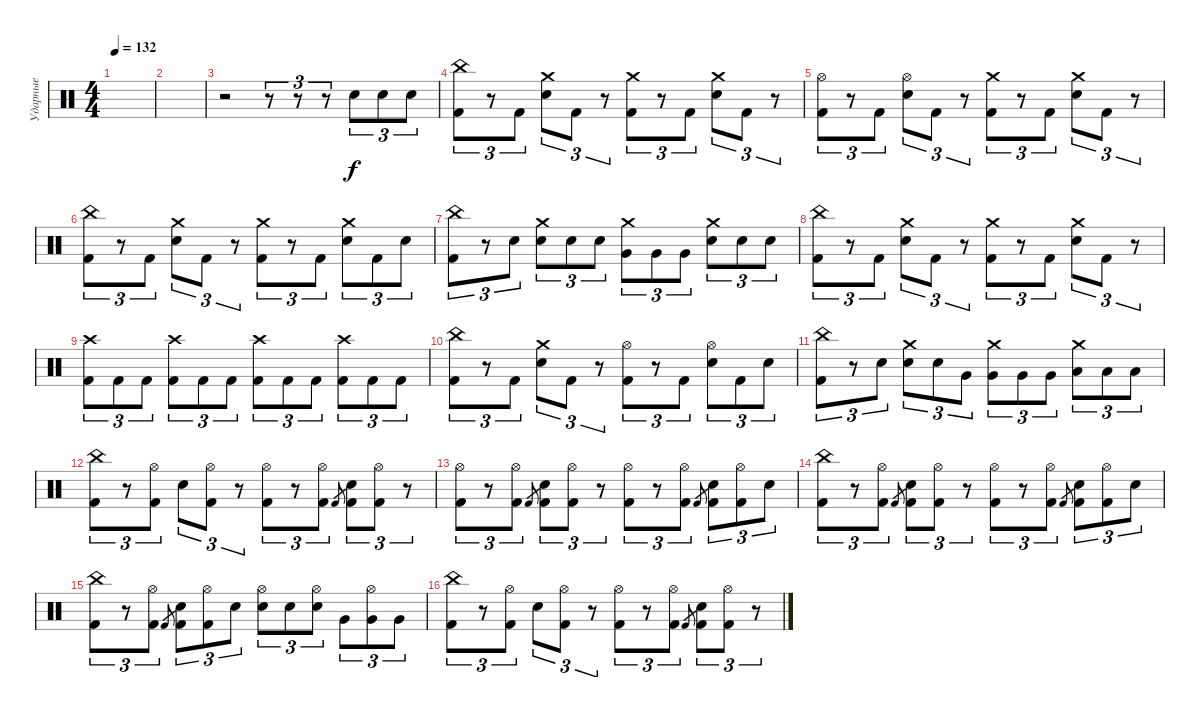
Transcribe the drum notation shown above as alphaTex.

\track ("Ударные" "Ударные") {instrument percussion}
\staff {score}
\articulation defaults
\ts (4 4)
\tempo 132
\clef neutral
\ks c
|
|
r.2 r.8{tu (3 2)} r.8{tu (3 2)} r.8{tu (3 2)} "Snare (hit) 2".8{tu (3 2)} "Snare (hit) 2".8{tu (3 2)} "Snare (hit) 2".8{tu (3 2)} |
("China (hit)" "Kick (hit) 2").8{tu (3 2)} r.8{tu (3 2)} "Kick (hit) 2".8{tu (3 2)} ("Crash medium (hit)" "Snare (hit) 2").8{tu (3 2)} "Kick (hit) 2".8{tu (3 2)} r.8{tu (3 2)} ("Crash medium (hit)" "Kick (hit) 2").8{tu (3 2)} r.8{tu (3 2)} "Kick (hit) 2".8{tu (3 2)} ("Crash medium (hit)" "Snare (hit) 2").8{tu (3 2)} "Kick (hit) 2".8{tu (3 2)} r.8{tu (3 2)} |
("Hi-Hat (open)" "Kick (hit) 2").8{tu (3 2)} r.8{tu (3 2)} "Kick (hit) 2".8{tu (3 2)} ("Hi-Hat (open)" "Snare (hit) 2").8{tu (3 2)} "Kick (hit) 2".8{tu (3 2)} r.8{tu (3 2)} ("Crash medium (hit)" "Kick (hit) 2").8{tu (3 2)} r.8{tu (3 2)} "Kick (hit) 2".8{tu (3 2)} ("Crash medium (hit)" "Snare (hit) 2").8{tu (3 2)} "Kick (hit) 2".8{tu (3 2)} r.8{tu (3 2)} |
("China (hit)" "Kick (hit) 2").8{tu (3 2)} r.8{tu (3 2)} "Kick (hit) 2".8{tu (3 2)} ("Crash medium (hit)" "Snare (hit) 2").8{tu (3 2)} "Kick (hit) 2".8{tu (3 2)} r.8{tu (3 2)} ("Crash medium (hit)" "Kick (hit) 2").8{tu (3 2)} r.8{tu (3 2)} "Kick (hit) 2".8{tu (3 2)} ("Crash medium (hit)" "Snare (hit) 2").8{tu (3 2)} "Kick (hit) 2".8{tu (3 2)} "Snare (hit) 2".8{tu (3 2)} |
("China (hit)" "Kick (hit) 2").8{tu (3 2)} r.8{tu (3 2)} "Snare (hit) 2".8{tu (3 2)} ("Crash medium (hit)" "Snare (hit) 2").8{tu (3 2)} "Snare (hit) 2".8{tu (3 2)} "Snare (hit) 2".8{tu (3 2)} ("Crash medium (hit)" "Very Low Tom (hit)").8{tu (3 2)} "Very Low Tom (hit)".8{tu (3 2)} "Very Low Tom (hit)".8{tu (3 2)} ("Crash medium (hit)" "Snare (hit) 2").8{tu (3 2)} "Snare (hit) 2".8{tu (3 2)} "Snare (hit) 2".8{tu (3 2)} |
("China (hit)" "Kick (hit) 2").8{tu (3 2)} r.8{tu (3 2)} "Kick (hit) 2".8{tu (3 2)} ("Crash medium (hit)" "Snare (hit) 2").8{tu (3 2)} "Kick (hit) 2".8{tu (3 2)} r.8{tu (3 2)} ("Crash medium (hit)" "Kick (hit) 2").8{tu (3 2)} r.8{tu (3 2)} "Kick (hit) 2".8{tu (3 2)} ("Crash medium (hit)" "Snare (hit) 2").8{tu (3 2)} "Kick (hit) 2".8{tu (3 2)} r.8{tu (3 2)} |
("Crash high (hit)" "Kick (hit) 2").8{tu (3 2)} "Kick (hit) 2".8{tu (3 2)} "Kick (hit) 2".8{tu (3 2)} ("Crash high (hit)" "Kick (hit) 2").8{tu (3 2)} "Kick (hit) 2".8{tu (3 2)} "Kick (hit) 2".8{tu (3 2)} ("Crash high (hit)" "Kick (hit) 2").8{tu (3 2)} "Kick (hit) 2".8{tu (3 2)} "Kick (hit) 2".8{tu (3 2)} ("Crash high (hit)" "Kick (hit) 2").8{tu (3 2)} "Kick (hit) 2".8{tu (3 2)} "Kick (hit) 2".8{tu (3 2)} |
("China (hit)" "Kick (hit) 2").8{tu (3 2)} r.8{tu (3 2)} "Kick (hit) 2".8{tu (3 2)} ("Crash medium (hit)" "Snare (hit) 2").8{tu (3 2)} "Kick (hit) 2".8{tu (3 2)} r.8{tu (3 2)} ("Hi-Hat (open)" "Kick (hit) 2").8{tu (3 2)} r.8{tu (3 2)} "Kick (hit) 2".8{tu (3 2)} ("Hi-Hat (open)" "Snare (hit) 2").8{tu (3 2)} "Kick (hit) 2".8{tu (3 2)} "Snare (hit) 2".8{tu (3 2)} |
("China (hit)" "Kick (hit) 2").8{tu (3 2)} r.8{tu (3 2)} "Snare (hit) 2".8{tu (3 2)} ("Crash medium (hit)" "Snare (hit) 2").8{tu (3 2)} "Snare (hit) 2".8{tu (3 2)} "Very Low Tom (hit)".8{tu (3 2)} ("Crash medium (hit)" "Very Low Tom (hit)").8{tu (3 2)} "Very Low Tom (hit)".8{tu (3 2)} "Very Low Tom (hit)".8{tu (3 2)} ("Crash medium (hit)" "Low Tom (hit)").8{tu (3 2)} "Low Tom (hit)".8{tu (3 2)} "Low Tom (hit)".8{tu (3 2)} |
("China (hit)" "Kick (hit) 2").8{tu (3 2)} r.8{tu (3 2)} ("Hi-Hat (open)" "Kick (hit) 2").8{tu (3 2)} "Snare (hit) 2".8{tu (3 2)} ("Hi-Hat (open)" "Kick (hit) 2").8{tu (3 2)} r.8{tu (3 2)} ("Hi-Hat (open)" "Kick (hit) 2").8{tu (3 2)} r.8{tu (3 2)} ("Hi-Hat (open)" "Kick (hit) 2").8{tu (3 2)} "Kick (hit) 2".8{gr} ("Snare (hit) 2" "Kick (hit) 2").8{tu (3 2)} ("Hi-Hat (open)" "Kick (hit) 2").8{tu (3 2)} r.8{tu (3 2)} |
("Hi-Hat (open)" "Kick (hit) 2").8{tu (3 2)} r.8{tu (3 2)} ("Hi-Hat (open)" "Kick (hit) 2").8{tu (3 2)} "Kick (hit) 2".8{gr} ("Snare (hit) 2" "Kick (hit) 2").8{tu (3 2)} ("Hi-Hat (open)" "Kick (hit) 2").8{tu (3 2)} r.8{tu (3 2)} ("Hi-Hat (open)" "Kick (hit) 2").8{tu (3 2)} r.8{tu (3 2)} ("Hi-Hat (open)" "Kick (hit) 2").8{tu (3 2)} "Kick (hit) 2".8{gr} ("Snare (hit) 2" "Kick (hit) 2").8{tu (3 2)} ("Hi-Hat (open)" "Kick (hit) 2").8{tu (3 2)} "Snare (hit) 2".8{tu (3 2)} |
("China (hit)" "Kick (hit) 2").8{tu (3 2)} r.8{tu (3 2)} ("Hi-Hat (open)" "Kick (hit) 2").8{tu (3 2)} "Kick (hit) 2".8{gr} ("Snare (hit) 2" "Kick (hit) 2").8{tu (3 2)} ("Hi-Hat (open)" "Kick (hit) 2").8{tu (3 2)} r.8{tu (3 2)} ("Hi-Hat (open)" "Kick (hit) 2").8{tu (3 2)} r.8{tu (3 2)} ("Hi-Hat (open)" "Kick (hit) 2").8{tu (3 2)} "Kick (hit) 2".8{gr} ("Snare (hit) 2" "Kick (hit) 2").8{tu (3 2)} ("Hi-Hat (open)" "Kick (hit) 2").8{tu (3 2)} "Snare (hit) 2".8{tu (3 2)} |
("China (hit)" "Kick (hit) 2").8{tu (3 2)} r.8{tu (3 2)} ("Hi-Hat (open)" "Kick (hit) 2").8{tu (3 2)} "Kick (hit) 2".8{gr} ("Snare (hit) 2" "Kick (hit) 2").8{tu (3 2)} ("Hi-Hat (open)" "Kick (hit) 2").8{tu (3 2)} "Snare (hit) 2".8{tu (3 2)} ("Hi-Hat (open)" "Snare (hit) 2").8{tu (3 2)} "Snare (hit) 2".8{tu (3 2)} ("Hi-Hat (open)" "Snare (hit) 2").8{tu (3 2)} "Very Low Tom (hit)".8{tu (3 2)} ("Hi-Hat (open)" "Very Low Tom (hit)").8{tu (3 2)} "Very Low Tom (hit)".8{tu (3 2)} |
("China (hit)" "Kick (hit) 2").8{tu (3 2)} r.8{tu (3 2)} ("Hi-Hat (open)" "Kick (hit) 2").8{tu (3 2)} "Snare (hit) 2".8{tu (3 2)} ("Hi-Hat (open)" "Kick (hit) 2").8{tu (3 2)} r.8{tu (3 2)} ("Hi-Hat (open)" "Kick (hit) 2").8{tu (3 2)} r.8{tu (3 2)} ("Hi-Hat (open)" "Kick (hit) 2").8{tu (3 2)} "Kick (hit) 2".8{gr} ("Snare (hit) 2" "Kick (hit) 2").8{tu (3 2)} ("Hi-Hat (open)" "Kick (hit) 2").8{tu (3 2)} r.8{tu (3 2)}
